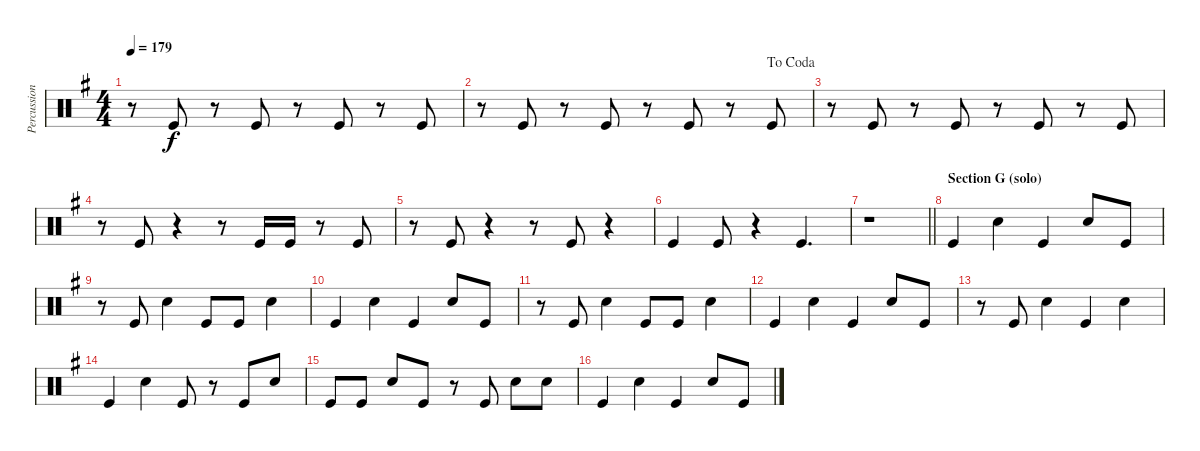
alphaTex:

\track ("Percussion 02" "Percussion") {instrument percussion}
\staff {score}
\articulation defaults
\ts (4 4)
\tempo 179
\clef neutral
\ks g
r.8{dy f} "Kick (hit)".8 r.8 "Kick (hit)".8 r.8 "Kick (hit)".8 r.8 "Kick (hit)".8 |
\jump dacoda
r.8 "Kick (hit)".8 r.8 "Kick (hit)".8 r.8 "Kick (hit)".8 r.8 "Kick (hit)".8 |
r.8 "Kick (hit)".8 r.8 "Kick (hit)".8 r.8 "Kick (hit)".8 r.8 "Kick (hit)".8 |
r.8 "Kick (hit)".8 r.4 r.8 "Kick (hit)".16 "Kick (hit)".16 r.8 "Kick (hit)".8 |
r.8 "Kick (hit)".8 r.4 r.8 "Kick (hit)".8 r.4 |
"Kick (hit)".4 "Kick (hit)".8 r.4 "Kick (hit)".4{d} |
\barLineRight lightlight
r.1 |
\section ("" "Section G (solo)")
"Kick (hit)".4 "Snare (hit) 2".4 "Kick (hit)".4 "Snare (hit) 2".8 "Kick (hit)".8 |
r.8 "Kick (hit)".8 "Snare (hit) 2".4 "Kick (hit)".8 "Kick (hit)".8 "Snare (hit) 2".4 |
"Kick (hit)".4 "Snare (hit) 2".4 "Kick (hit)".4 "Snare (hit) 2".8 "Kick (hit)".8 |
r.8 "Kick (hit)".8 "Snare (hit) 2".4 "Kick (hit)".8 "Kick (hit)".8 "Snare (hit) 2".4 |
"Kick (hit)".4 "Snare (hit) 2".4 "Kick (hit)".4 "Snare (hit) 2".8 "Kick (hit)".8 |
r.8 "Kick (hit)".8 "Snare (hit) 2".4 "Kick (hit)".4 "Snare (hit) 2".4 |
"Kick (hit)".4 "Snare (hit) 2".4 "Kick (hit)".8 r.8 "Kick (hit)".8 "Snare (hit) 2".8 |
"Kick (hit)".8 "Kick (hit)".8 "Snare (hit) 2".8 "Kick (hit)".8 r.8 "Kick (hit)".8 "Snare (hit) 2".8 "Snare (hit) 2".8 |
"Kick (hit)".4 "Snare (hit) 2".4 "Kick (hit)".4 "Snare (hit) 2".8 "Kick (hit)".8
